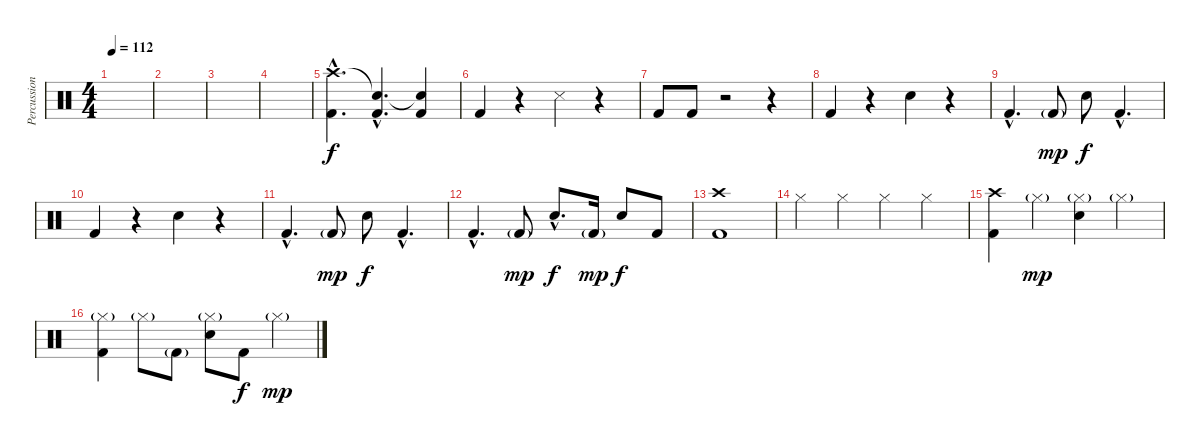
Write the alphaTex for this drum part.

\track ("Percussion" "Percussion") {instrument percussion}
\staff {score}
\articulation defaults
\ts (4 4)
\tempo 112
\clef neutral
\ks c
|
|
|
|
("Crash high (hit)"{hac} "Kick (hit) 2"{hac}).4{d} ("Snare (hit)"{hac t} "Kick (hit) 2"{hac}).4{d} ("Snare (hit)"{t} "Kick (hit) 2").4 |
"Kick (hit) 2".4 r.4 "Snare (side stick) 3".4 r.4 |
"Kick (hit) 2".8 "Kick (hit) 2".8 r.2 r.4 |
"Kick (hit) 2".4 r.4 "Electric Snare (hit)".4 r.4 |
"Kick (hit) 2"{hac}.4{d} "Kick (hit) 2"{g}.8{dy mp} "Electric Snare (hit)".8{dy f} "Kick (hit) 2"{hac}.4{d} |
"Kick (hit) 2".4 r.4 "Electric Snare (hit)".4 r.4 |
"Kick (hit) 2"{hac}.4{d} "Kick (hit) 2"{g}.8{dy mp} "Electric Snare (hit)".8{dy f} "Kick (hit) 2"{hac}.4{d} |
"Kick (hit) 2"{hac}.4{d} "Kick (hit) 2"{g}.8{dy mp} "Electric Snare (hit)"{hac}.8{d dy f} "Kick (hit) 2"{g}.16{dy mp} "Electric Snare (hit)".8{dy f} "Kick (hit) 2".8 |
("Crash high (hit)" "Kick (hit) 2").1 |
"Hi-Hat (closed)".4 "Hi-Hat (closed)".4 "Hi-Hat (closed)".4 "Hi-Hat (closed)".4 |
("Crash high (hit)" "Kick (hit) 2").4 "Hi-Hat (closed)"{g}.4{dy mp} ("Hi-Hat (closed)"{g} "Snare (hit) 2").4 "Hi-Hat (closed)"{g}.4 |
("Hi-Hat (closed)"{g} "Kick (hit) 2").4 "Hi-Hat (closed)"{g}.8 "Kick (hit) 2"{g}.8 ("Hi-Hat (closed)"{g} "Snare (hit) 2").8 "Kick (hit) 2".8{dy f} "Hi-Hat (closed)"{g}.4{dy mp}
